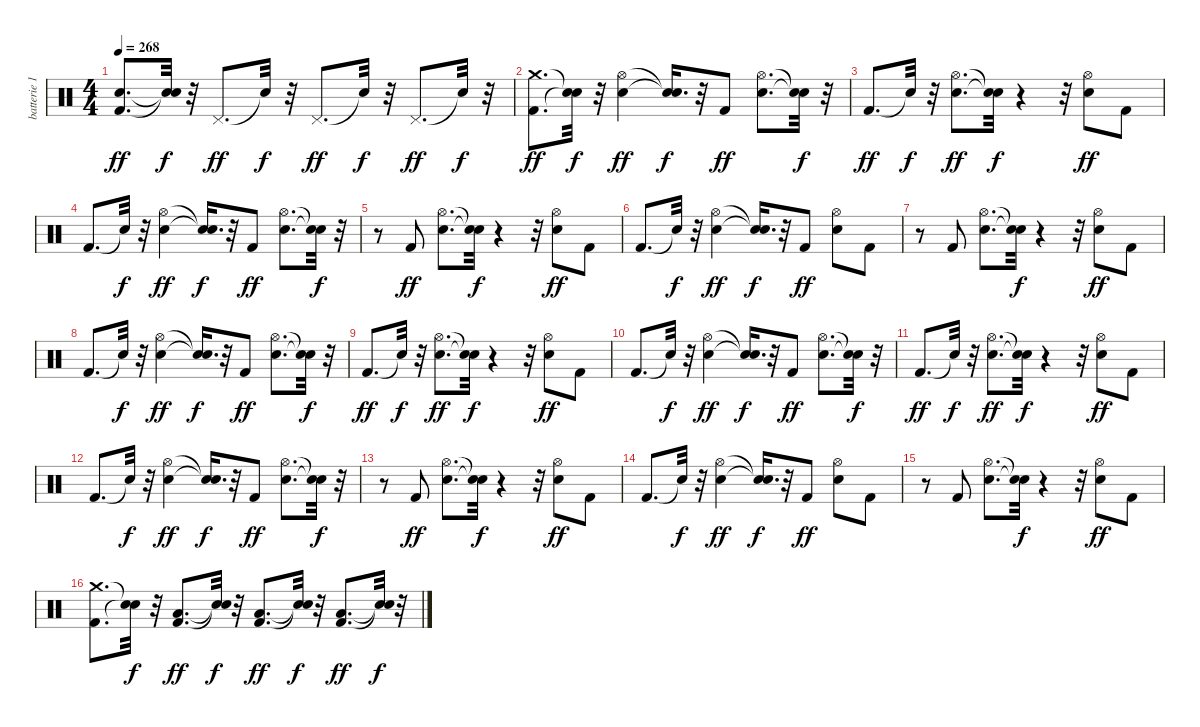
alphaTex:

\track ("batterie 1" "batterie 1") {instrument percussion}
\staff {score}
\articulation defaults
\ts (4 4)
\tempo 268
\clef neutral
\ks c
("Kick (hit) 2" "Electric Snare (hit)").8{d dy ff} ("Snare (hit)"{t} "Snare (hit)"{t}).32{dy f} r.32 "Pedal Hi-Hat (hit)".8{d dy ff} "Snare (hit)"{t}.32{dy f} r.32 "Pedal Hi-Hat (hit)".8{d dy ff} "Snare (hit)"{t}.32{dy f} r.32 "Pedal Hi-Hat (hit)".8{d dy ff} "Snare (hit)"{t}.32{dy f} r.32 |
("Kick (hit) 2" "Crash medium (hit)").8{d dy ff} ("Snare (hit)"{t} "Snare (hit)"{t}).32{dy f} r.32 ("Electric Snare (hit)" "Hi-Hat (open)").4{dy ff} ("Snare (hit)"{t} "Snare (hit)"{t}).16{d dy f} r.32 "Kick (hit) 2".8{dy ff} ("Electric Snare (hit)" "Hi-Hat (open)").8{d} ("Snare (hit)"{t} "Snare (hit)"{t}).32{dy f} r.32 |
"Kick (hit) 2".8{d dy ff} "Snare (hit)"{t}.32{dy f} r.32 ("Electric Snare (hit)" "Hi-Hat (open)").8{d dy ff} ("Snare (hit)"{t} "Snare (hit)"{t}).32{dy f} r.4 r.32 ("Electric Snare (hit)" "Hi-Hat (open)").8{dy ff} "Kick (hit) 2".8 |
"Kick (hit) 2".8{d} "Snare (hit)"{t}.32{dy f} r.32 ("Electric Snare (hit)" "Hi-Hat (open)").4{dy ff} ("Snare (hit)"{t} "Snare (hit)"{t}).16{d dy f} r.32 "Kick (hit) 2".8{dy ff} ("Electric Snare (hit)" "Hi-Hat (open)").8{d} ("Snare (hit)"{t} "Snare (hit)"{t}).32{dy f} r.32 |
r.8 "Kick (hit) 2".8{dy ff} ("Electric Snare (hit)" "Hi-Hat (open)").8{d} ("Snare (hit)"{t} "Snare (hit)"{t}).32{dy f} r.4 r.32 ("Electric Snare (hit)" "Hi-Hat (open)").8{dy ff} "Kick (hit) 2".8 |
"Kick (hit) 2".8{d} "Snare (hit)"{t}.32{dy f} r.32 ("Electric Snare (hit)" "Hi-Hat (open)").4{dy ff} ("Snare (hit)"{t} "Snare (hit)"{t}).16{d dy f} r.32 "Kick (hit) 2".8{dy ff} ("Electric Snare (hit)" "Hi-Hat (open)").8 "Kick (hit) 2".8 |
r.8 "Kick (hit) 2".8 ("Electric Snare (hit)" "Hi-Hat (open)").8{d} ("Snare (hit)"{t} "Snare (hit)"{t}).32{dy f} r.4 r.32 ("Electric Snare (hit)" "Hi-Hat (open)").8{dy ff} "Kick (hit) 2".8 |
"Kick (hit) 2".8{d} "Snare (hit)"{t}.32{dy f} r.32 ("Electric Snare (hit)" "Hi-Hat (open)").4{dy ff} ("Snare (hit)"{t} "Snare (hit)"{t}).16{d dy f} r.32 "Kick (hit) 2".8{dy ff} ("Electric Snare (hit)" "Hi-Hat (open)").8{d} ("Snare (hit)"{t} "Snare (hit)"{t}).32{dy f} r.32 |
"Kick (hit) 2".8{d dy ff} "Snare (hit)"{t}.32{dy f} r.32 ("Electric Snare (hit)" "Hi-Hat (open)").8{d dy ff} ("Snare (hit)"{t} "Snare (hit)"{t}).32{dy f} r.4 r.32 ("Electric Snare (hit)" "Hi-Hat (open)").8{dy ff} "Kick (hit) 2".8 |
"Kick (hit) 2".8{d} "Snare (hit)"{t}.32{dy f} r.32 ("Electric Snare (hit)" "Hi-Hat (open)").4{dy ff} ("Snare (hit)"{t} "Snare (hit)"{t}).16{d dy f} r.32 "Kick (hit) 2".8{dy ff} ("Electric Snare (hit)" "Hi-Hat (open)").8{d} ("Snare (hit)"{t} "Snare (hit)"{t}).32{dy f} r.32 |
"Kick (hit) 2".8{d dy ff} "Snare (hit)"{t}.32{dy f} r.32 ("Electric Snare (hit)" "Hi-Hat (open)").8{d dy ff} ("Snare (hit)"{t} "Snare (hit)"{t}).32{dy f} r.4 r.32 ("Electric Snare (hit)" "Hi-Hat (open)").8{dy ff} "Kick (hit) 2".8 |
"Kick (hit) 2".8{d} "Snare (hit)"{t}.32{dy f} r.32 ("Electric Snare (hit)" "Hi-Hat (open)").4{dy ff} ("Snare (hit)"{t} "Snare (hit)"{t}).16{d dy f} r.32 "Kick (hit) 2".8{dy ff} ("Electric Snare (hit)" "Hi-Hat (open)").8{d} ("Snare (hit)"{t} "Snare (hit)"{t}).32{dy f} r.32 |
r.8 "Kick (hit) 2".8{dy ff} ("Electric Snare (hit)" "Hi-Hat (open)").8{d} ("Snare (hit)"{t} "Snare (hit)"{t}).32{dy f} r.4 r.32 ("Electric Snare (hit)" "Hi-Hat (open)").8{dy ff} "Kick (hit) 2".8 |
"Kick (hit) 2".8{d} "Snare (hit)"{t}.32{dy f} r.32 ("Electric Snare (hit)" "Hi-Hat (open)").4{dy ff} ("Snare (hit)"{t} "Snare (hit)"{t}).16{d dy f} r.32 "Kick (hit) 2".8{dy ff} ("Electric Snare (hit)" "Hi-Hat (open)").8 "Kick (hit) 2".8 |
r.8 "Kick (hit) 2".8 ("Electric Snare (hit)" "Hi-Hat (open)").8{d} ("Snare (hit)"{t} "Snare (hit)"{t}).32{dy f} r.4 r.32 ("Electric Snare (hit)" "Hi-Hat (open)").8{dy ff} "Kick (hit) 2".8 |
("Kick (hit) 2" "Crash medium (hit)").8{d} ("Snare (hit)"{t} "Snare (hit)"{t}).32{dy f} r.32 ("Kick (hit) 2" "Low Floor Tom (hit)").8{d dy ff} ("Snare (hit)"{t} "Snare (hit)"{t}).32{dy f} r.32 ("Kick (hit) 2" "Low Floor Tom (hit)").8{d dy ff} ("Snare (hit)"{t} "Snare (hit)"{t}).32{dy f} r.32 ("Kick (hit) 2" "Low Floor Tom (hit)").8{d dy ff} ("Snare (hit)"{t} "Snare (hit)"{t}).32{dy f} r.32
